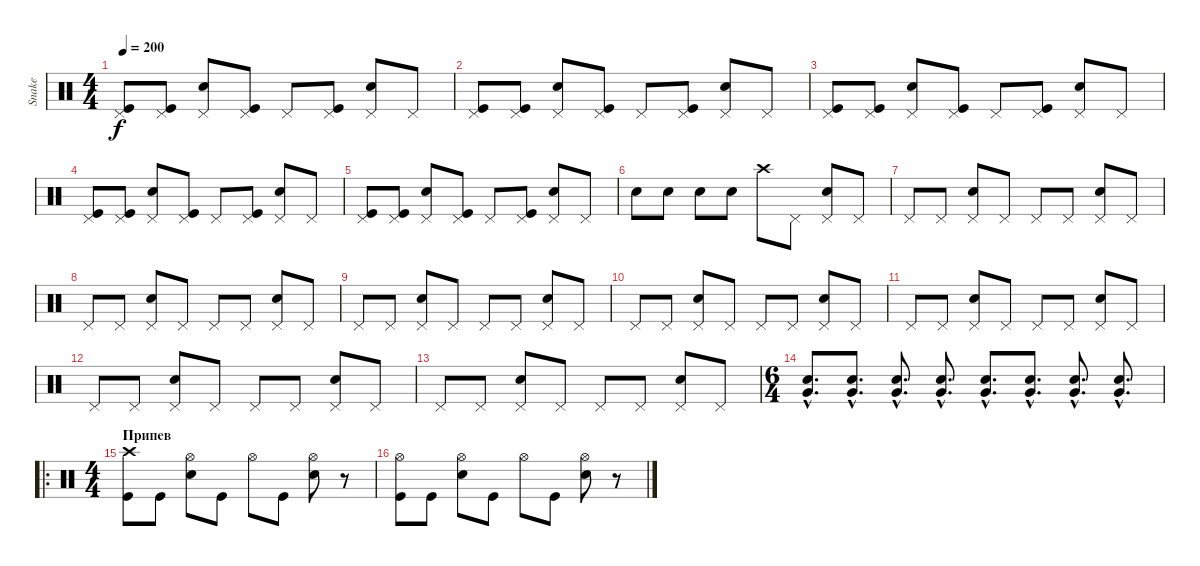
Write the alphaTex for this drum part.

\track ("Snake" "Snake") {instrument percussion}
\staff {score}
\articulation defaults
\ts (4 4)
\tempo 200
\clef neutral
\ks c
("Pedal Hi-Hat (hit)" "Kick (hit)").8{dy f} ("Pedal Hi-Hat (hit)" "Kick (hit)").8 ("Pedal Hi-Hat (hit)" "Electric Snare (hit)").8 ("Pedal Hi-Hat (hit)" "Kick (hit)").8 "Pedal Hi-Hat (hit)".8 ("Pedal Hi-Hat (hit)" "Kick (hit)").8 ("Pedal Hi-Hat (hit)" "Electric Snare (hit)").8 "Pedal Hi-Hat (hit)".8 |
("Pedal Hi-Hat (hit)" "Kick (hit)").8 ("Pedal Hi-Hat (hit)" "Kick (hit)").8 ("Pedal Hi-Hat (hit)" "Electric Snare (hit)").8 ("Pedal Hi-Hat (hit)" "Kick (hit)").8 "Pedal Hi-Hat (hit)".8 ("Pedal Hi-Hat (hit)" "Kick (hit)").8 ("Pedal Hi-Hat (hit)" "Electric Snare (hit)").8 "Pedal Hi-Hat (hit)".8 |
("Pedal Hi-Hat (hit)" "Kick (hit)").8 ("Pedal Hi-Hat (hit)" "Kick (hit)").8 ("Pedal Hi-Hat (hit)" "Electric Snare (hit)").8 ("Pedal Hi-Hat (hit)" "Kick (hit)").8 "Pedal Hi-Hat (hit)".8 ("Pedal Hi-Hat (hit)" "Kick (hit)").8 ("Pedal Hi-Hat (hit)" "Electric Snare (hit)").8 "Pedal Hi-Hat (hit)".8 |
("Pedal Hi-Hat (hit)" "Kick (hit)").8 ("Pedal Hi-Hat (hit)" "Kick (hit)").8 ("Pedal Hi-Hat (hit)" "Electric Snare (hit)").8 ("Pedal Hi-Hat (hit)" "Kick (hit)").8 "Pedal Hi-Hat (hit)".8 ("Pedal Hi-Hat (hit)" "Kick (hit)").8 ("Pedal Hi-Hat (hit)" "Electric Snare (hit)").8 "Pedal Hi-Hat (hit)".8 |
("Pedal Hi-Hat (hit)" "Kick (hit)").8 ("Pedal Hi-Hat (hit)" "Kick (hit)").8 ("Pedal Hi-Hat (hit)" "Electric Snare (hit)").8 ("Pedal Hi-Hat (hit)" "Kick (hit)").8 "Pedal Hi-Hat (hit)".8 ("Pedal Hi-Hat (hit)" "Kick (hit)").8 ("Pedal Hi-Hat (hit)" "Electric Snare (hit)").8 "Pedal Hi-Hat (hit)".8 |
"Electric Snare (hit)".8 "Electric Snare (hit)".8 "Electric Snare (hit)".8 "Electric Snare (hit)".8 "Crash high (hit)".8 "Pedal Hi-Hat (hit)".8 ("Pedal Hi-Hat (hit)" "Electric Snare (hit)").8 "Pedal Hi-Hat (hit)".8 |
"Pedal Hi-Hat (hit)".8 "Pedal Hi-Hat (hit)".8 ("Pedal Hi-Hat (hit)" "Electric Snare (hit)").8 "Pedal Hi-Hat (hit)".8 "Pedal Hi-Hat (hit)".8 "Pedal Hi-Hat (hit)".8 ("Pedal Hi-Hat (hit)" "Electric Snare (hit)").8 "Pedal Hi-Hat (hit)".8 |
"Pedal Hi-Hat (hit)".8 "Pedal Hi-Hat (hit)".8 ("Pedal Hi-Hat (hit)" "Electric Snare (hit)").8 "Pedal Hi-Hat (hit)".8 "Pedal Hi-Hat (hit)".8 "Pedal Hi-Hat (hit)".8 ("Pedal Hi-Hat (hit)" "Electric Snare (hit)").8 "Pedal Hi-Hat (hit)".8 |
"Pedal Hi-Hat (hit)".8 "Pedal Hi-Hat (hit)".8 ("Pedal Hi-Hat (hit)" "Electric Snare (hit)").8 "Pedal Hi-Hat (hit)".8 "Pedal Hi-Hat (hit)".8 "Pedal Hi-Hat (hit)".8 ("Pedal Hi-Hat (hit)" "Electric Snare (hit)").8 "Pedal Hi-Hat (hit)".8 |
"Pedal Hi-Hat (hit)".8 "Pedal Hi-Hat (hit)".8 ("Pedal Hi-Hat (hit)" "Electric Snare (hit)").8 "Pedal Hi-Hat (hit)".8 "Pedal Hi-Hat (hit)".8 "Pedal Hi-Hat (hit)".8 ("Pedal Hi-Hat (hit)" "Electric Snare (hit)").8 "Pedal Hi-Hat (hit)".8 |
"Pedal Hi-Hat (hit)".8 "Pedal Hi-Hat (hit)".8 ("Pedal Hi-Hat (hit)" "Electric Snare (hit)").8 "Pedal Hi-Hat (hit)".8 "Pedal Hi-Hat (hit)".8 "Pedal Hi-Hat (hit)".8 ("Pedal Hi-Hat (hit)" "Electric Snare (hit)").8 "Pedal Hi-Hat (hit)".8 |
"Pedal Hi-Hat (hit)".8 "Pedal Hi-Hat (hit)".8 ("Pedal Hi-Hat (hit)" "Electric Snare (hit)").8 "Pedal Hi-Hat (hit)".8 "Pedal Hi-Hat (hit)".8 "Pedal Hi-Hat (hit)".8 ("Pedal Hi-Hat (hit)" "Electric Snare (hit)").8 "Pedal Hi-Hat (hit)".8 |
"Pedal Hi-Hat (hit)".8 "Pedal Hi-Hat (hit)".8 ("Pedal Hi-Hat (hit)" "Electric Snare (hit)").8 "Pedal Hi-Hat (hit)".8 "Pedal Hi-Hat (hit)".8 "Pedal Hi-Hat (hit)".8 ("Pedal Hi-Hat (hit)" "Electric Snare (hit)").8 "Pedal Hi-Hat (hit)".8 |
\ts (6 4)
("Electric Snare (hit)"{hac} "Very Low Tom (hit)"{hac}).8{d} ("Electric Snare (hit)"{hac} "Very Low Tom (hit)"{hac}).8{d} ("Electric Snare (hit)"{hac} "Very Low Tom (hit)"{hac}).8{d} ("Electric Snare (hit)"{hac} "Very Low Tom (hit)"{hac}).8{d} ("Electric Snare (hit)"{hac} "Very Low Tom (hit)"{hac}).8{d} ("Electric Snare (hit)"{hac} "Very Low Tom (hit)"{hac}).8{d} ("Electric Snare (hit)"{hac} "Very Low Tom (hit)"{hac}).8{d} ("Electric Snare (hit)"{hac} "Very Low Tom (hit)"{hac}).8{d} |
\ro
\ts (4 4)
\section ("" "Припев")
("Crash high (hit)" "Kick (hit)").8{volume 11} "Kick (hit)".8 ("Hi-Hat (open)" "Electric Snare (hit)").8 "Kick (hit)".8 "Hi-Hat (open)".8 "Kick (hit)".8 ("Hi-Hat (open)" "Electric Snare (hit)").8 r.8 |
("Hi-Hat (open)" "Kick (hit)").8 "Kick (hit)".8 ("Hi-Hat (open)" "Electric Snare (hit)").8 "Kick (hit)".8 "Hi-Hat (open)".8 "Kick (hit)".8 ("Hi-Hat (open)" "Electric Snare (hit)").8 r.8
